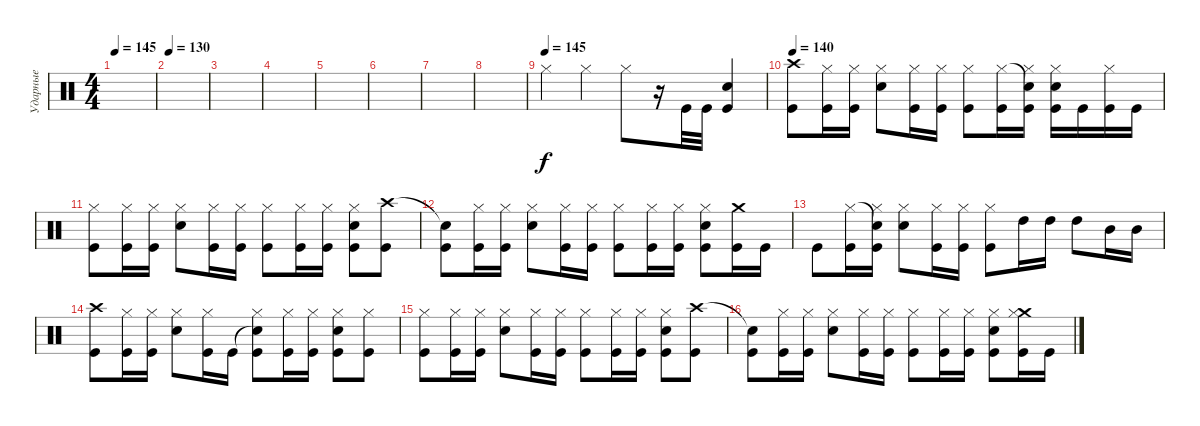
\track ("Ударные" "Ударные") {instrument percussion}
\staff {score}
\articulation defaults
\ts (4 4)
\tempo 145
\tempo 130
\tempo 145
\clef neutral
\ks c
|
\tempo 130
|
|
|
|
|
|
|
\tempo (145)
"Hi-Hat (closed)".4 "Hi-Hat (closed)".4 "Hi-Hat (closed)".8 r.16 "Kick (hit)".32 "Kick (hit)".32 ("Electric Snare (hit)" "Kick (hit)").4 |
\tempo 140
("Crash high (hit)" "Kick (hit)").8 ("Hi-Hat (closed)" "Kick (hit)").16 ("Hi-Hat (closed)" "Kick (hit)").16 ("Hi-Hat (closed)" "Electric Snare (hit)").8 ("Hi-Hat (closed)" "Kick (hit)").16 ("Hi-Hat (closed)" "Kick (hit)").16 ("Hi-Hat (closed)" "Kick (hit)").8 ("Hi-Hat (closed)" "Kick (hit)").16 ("Snare (hit)"{t} "Hi-Hat (closed)" "Kick (hit)").16 ("Hi-Hat (closed)" "Electric Snare (hit)" "Kick (hit)").16 "Kick (hit)".16 ("Hi-Hat (closed)" "Kick (hit)").16 "Kick (hit)".16 |
("Hi-Hat (closed)" "Kick (hit)").8 ("Hi-Hat (closed)" "Kick (hit)").16 ("Hi-Hat (closed)" "Kick (hit)").16 ("Hi-Hat (closed)" "Electric Snare (hit)").8 ("Hi-Hat (closed)" "Kick (hit)").16 ("Hi-Hat (closed)" "Kick (hit)").16 ("Hi-Hat (closed)" "Kick (hit)").8 ("Hi-Hat (closed)" "Kick (hit)").16 ("Hi-Hat (closed)" "Kick (hit)").16 ("Hi-Hat (closed)" "Electric Snare (hit)" "Kick (hit)").8 ("Crash high (hit)" "Kick (hit)").8 |
("Snare (hit)"{t} "Kick (hit)").8 ("Hi-Hat (closed)" "Kick (hit)").16 ("Hi-Hat (closed)" "Kick (hit)").16 ("Hi-Hat (closed)" "Electric Snare (hit)").8 ("Hi-Hat (closed)" "Kick (hit)").16 ("Hi-Hat (closed)" "Kick (hit)").16 ("Hi-Hat (closed)" "Kick (hit)").8 ("Hi-Hat (closed)" "Kick (hit)").16 ("Hi-Hat (closed)" "Kick (hit)").16 ("Hi-Hat (closed)" "Electric Snare (hit)" "Kick (hit)").8 ("Crash medium (hit)" "Kick (hit)").16 "Kick (hit)".16 |
"Kick (hit)".8 ("Hi-Hat (closed)" "Kick (hit)").16 ("Snare (hit)"{t} "Hi-Hat (closed)" "Kick (hit)").16 ("Hi-Hat (closed)" "Electric Snare (hit)").8 ("Hi-Hat (closed)" "Kick (hit)").16 ("Hi-Hat (closed)" "Kick (hit)").16 ("Hi-Hat (closed)" "Kick (hit)").8 "High Tom (hit)".16 "High Tom (hit)".16 "High Tom (hit)".8 "Mid Tom (hit)".16 "Mid Tom (hit)".16 |
("Crash high (hit)" "Kick (hit)").8 ("Hi-Hat (closed)" "Kick (hit)").16 ("Hi-Hat (closed)" "Kick (hit)").16 ("Hi-Hat (closed)" "Electric Snare (hit)").8 ("Hi-Hat (closed)" "Kick (hit)").16 "Kick (hit)".16 ("Snare (hit)"{t} "Hi-Hat (closed)" "Kick (hit)").8 ("Hi-Hat (closed)" "Kick (hit)").16 ("Hi-Hat (closed)" "Kick (hit)").16 ("Hi-Hat (closed)" "Electric Snare (hit)" "Kick (hit)").8 ("Hi-Hat (closed)" "Kick (hit)").8 |
("Hi-Hat (closed)" "Kick (hit)").8 ("Hi-Hat (closed)" "Kick (hit)").16 ("Hi-Hat (closed)" "Kick (hit)").16 ("Hi-Hat (closed)" "Electric Snare (hit)").8 ("Hi-Hat (closed)" "Kick (hit)").16 ("Hi-Hat (closed)" "Kick (hit)").16 ("Hi-Hat (closed)" "Kick (hit)").8 ("Hi-Hat (closed)" "Kick (hit)").16 ("Hi-Hat (closed)" "Kick (hit)").16 ("Hi-Hat (closed)" "Electric Snare (hit)" "Kick (hit)").8 ("Crash high (hit)" "Kick (hit)").8 |
("Snare (hit)"{t} "Kick (hit)").8 ("Hi-Hat (closed)" "Kick (hit)").16 ("Hi-Hat (closed)" "Kick (hit)").16 ("Hi-Hat (closed)" "Electric Snare (hit)").8 ("Hi-Hat (closed)" "Kick (hit)").16 ("Hi-Hat (closed)" "Kick (hit)").16 ("Hi-Hat (closed)" "Kick (hit)").8 ("Hi-Hat (closed)" "Kick (hit)").16 ("Hi-Hat (closed)" "Kick (hit)").16 ("Hi-Hat (closed)" "Electric Snare (hit)" "Kick (hit)").8 ("Crash medium (hit)" "Hi-Hat (closed)" "Kick (hit)").16 "Kick (hit)".16
